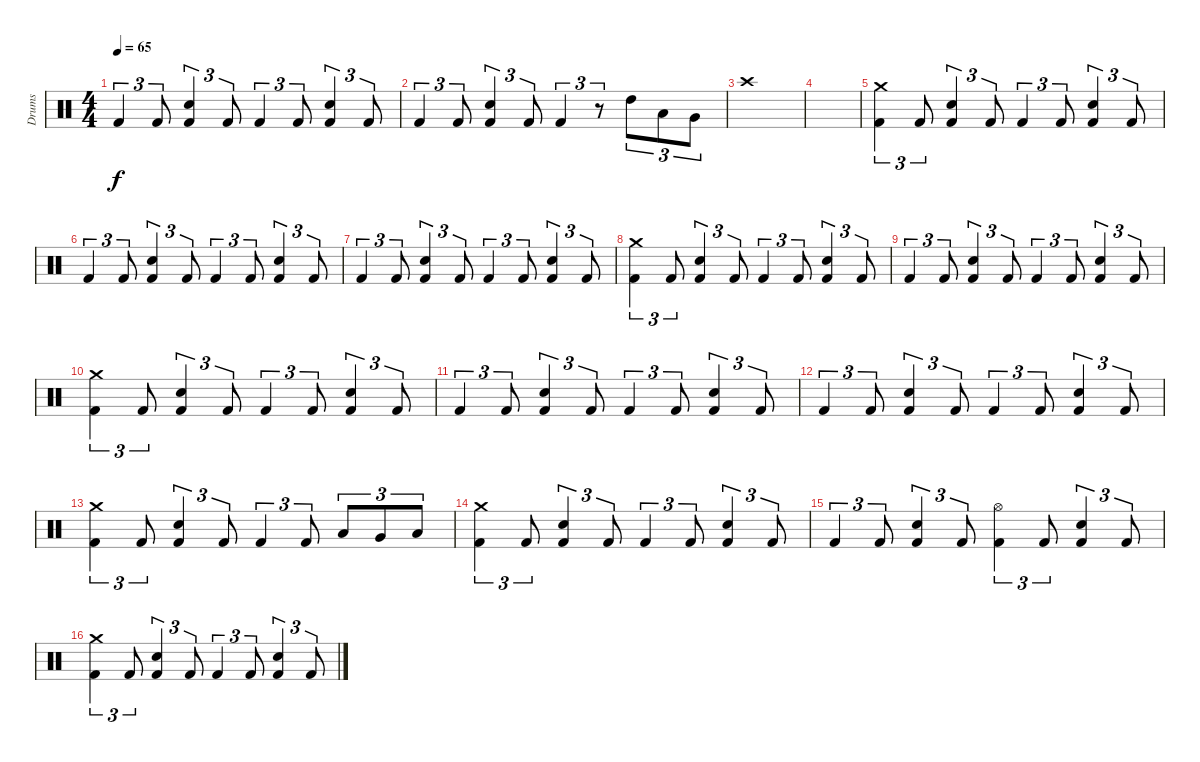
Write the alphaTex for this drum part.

\track ("Drums" "Drums") {instrument percussion}
\staff {score}
\articulation defaults
\ts (4 4)
\tempo 65
\clef neutral
\ks c "Kick (hit) 2".4{tu (3 2) dy f} "Kick (hit) 2".8{tu (3 2)}
("Snare (hit) 2" "Kick (hit) 2").4{tu (3 2)} "Kick (hit) 2".8{tu (3 2)} "Kick (hit) 2".4{tu (3 2)} "Kick (hit) 2".8{tu (3 2)} ("Snare (hit) 2" "Kick (hit) 2").4{tu (3 2)} "Kick (hit) 2".8{tu (3 2)} |
"Kick (hit) 2".4{tu (3 2)} "Kick (hit) 2".8{tu (3 2)} ("Snare (hit) 2" "Kick (hit) 2").4{tu (3 2)} "Kick (hit) 2".8{tu (3 2)} "Kick (hit) 2".4{tu (3 2)} r.8{tu (3 2)} "High Tom (hit)".8{tu (3 2)} "Low Tom (hit)".8{tu (3 2)} "Very Low Tom (hit)".8{tu (3 2)} |
"Crash high (hit)".1 |
|
("Crash medium (hit)" "Kick (hit) 2").4{tu (3 2)} "Kick (hit) 2".8{tu (3 2)} ("Snare (hit) 2" "Kick (hit) 2").4{tu (3 2)} "Kick (hit) 2".8{tu (3 2)} "Kick (hit) 2".4{tu (3 2)} "Kick (hit) 2".8{tu (3 2)} ("Snare (hit) 2" "Kick (hit) 2").4{tu (3 2)} "Kick (hit) 2".8{tu (3 2)} |
"Kick (hit) 2".4{tu (3 2)} "Kick (hit) 2".8{tu (3 2)} ("Snare (hit) 2" "Kick (hit) 2").4{tu (3 2)} "Kick (hit) 2".8{tu (3 2)} "Kick (hit) 2".4{tu (3 2)} "Kick (hit) 2".8{tu (3 2)} ("Snare (hit) 2" "Kick (hit) 2").4{tu (3 2)} "Kick (hit) 2".8{tu (3 2)} |
"Kick (hit) 2".4{tu (3 2)} "Kick (hit) 2".8{tu (3 2)} ("Snare (hit) 2" "Kick (hit) 2").4{tu (3 2)} "Kick (hit) 2".8{tu (3 2)} "Kick (hit) 2".4{tu (3 2)} "Kick (hit) 2".8{tu (3 2)} ("Snare (hit) 2" "Kick (hit) 2").4{tu (3 2)} "Kick (hit) 2".8{tu (3 2)} |
("Crash medium (hit)" "Kick (hit) 2").4{tu (3 2)} "Kick (hit) 2".8{tu (3 2)} ("Snare (hit) 2" "Kick (hit) 2").4{tu (3 2)} "Kick (hit) 2".8{tu (3 2)} "Kick (hit) 2".4{tu (3 2)} "Kick (hit) 2".8{tu (3 2)} ("Snare (hit) 2" "Kick (hit) 2").4{tu (3 2)} "Kick (hit) 2".8{tu (3 2)} |
"Kick (hit) 2".4{tu (3 2)} "Kick (hit) 2".8{tu (3 2)} ("Snare (hit) 2" "Kick (hit) 2").4{tu (3 2)} "Kick (hit) 2".8{tu (3 2)} "Kick (hit) 2".4{tu (3 2)} "Kick (hit) 2".8{tu (3 2)} ("Snare (hit) 2" "Kick (hit) 2").4{tu (3 2)} "Kick (hit) 2".8{tu (3 2)} |
("Crash medium (hit)" "Kick (hit) 2").4{tu (3 2)} "Kick (hit) 2".8{tu (3 2)} ("Snare (hit) 2" "Kick (hit) 2").4{tu (3 2)} "Kick (hit) 2".8{tu (3 2)} "Kick (hit) 2".4{tu (3 2)} "Kick (hit) 2".8{tu (3 2)} ("Snare (hit) 2" "Kick (hit) 2").4{tu (3 2)} "Kick (hit) 2".8{tu (3 2)} |
"Kick (hit) 2".4{tu (3 2)} "Kick (hit) 2".8{tu (3 2)} ("Snare (hit) 2" "Kick (hit) 2").4{tu (3 2)} "Kick (hit) 2".8{tu (3 2)} "Kick (hit) 2".4{tu (3 2)} "Kick (hit) 2".8{tu (3 2)} ("Snare (hit) 2" "Kick (hit) 2").4{tu (3 2)} "Kick (hit) 2".8{tu (3 2)} |
"Kick (hit) 2".4{tu (3 2)} "Kick (hit) 2".8{tu (3 2)} ("Snare (hit) 2" "Kick (hit) 2").4{tu (3 2)} "Kick (hit) 2".8{tu (3 2)} "Kick (hit) 2".4{tu (3 2)} "Kick (hit) 2".8{tu (3 2)} ("Snare (hit) 2" "Kick (hit) 2").4{tu (3 2)} "Kick (hit) 2".8{tu (3 2)} |
("Crash medium (hit)" "Kick (hit) 2").4{tu (3 2)} "Kick (hit) 2".8{tu (3 2)} ("Snare (hit) 2" "Kick (hit) 2").4{tu (3 2)} "Kick (hit) 2".8{tu (3 2)} "Kick (hit) 2".4{tu (3 2)} "Kick (hit) 2".8{tu (3 2)} "Low Tom (hit)".8{tu (3 2)} "Very Low Tom (hit)".8{tu (3 2)} "Low Floor Tom (hit)".8{tu (3 2)} |
("Crash medium (hit)" "Kick (hit) 2").4{tu (3 2)} "Kick (hit) 2".8{tu (3 2)} ("Snare (hit) 2" "Kick (hit) 2").4{tu (3 2)} "Kick (hit) 2".8{tu (3 2)} "Kick (hit) 2".4{tu (3 2)} "Kick (hit) 2".8{tu (3 2)} ("Snare (hit) 2" "Kick (hit) 2").4{tu (3 2)} "Kick (hit) 2".8{tu (3 2)} |
"Kick (hit) 2".4{tu (3 2)} "Kick (hit) 2".8{tu (3 2)} ("Snare (hit) 2" "Kick (hit) 2").4{tu (3 2)} "Kick (hit) 2".8{tu (3 2)} ("Hi-Hat (open)" "Kick (hit) 2").4{tu (3 2)} "Kick (hit) 2".8{tu (3 2)} ("Snare (hit) 2" "Kick (hit) 2").4{tu (3 2)} "Kick (hit) 2".8{tu (3 2)} |
("Crash medium (hit)" "Kick (hit) 2").4{tu (3 2)} "Kick (hit) 2".8{tu (3 2)} ("Snare (hit) 2" "Kick (hit) 2").4{tu (3 2)} "Kick (hit) 2".8{tu (3 2)} "Kick (hit) 2".4{tu (3 2)} "Kick (hit) 2".8{tu (3 2)} ("Snare (hit) 2" "Kick (hit) 2").4{tu (3 2)} "Kick (hit) 2".8{tu (3 2)}
